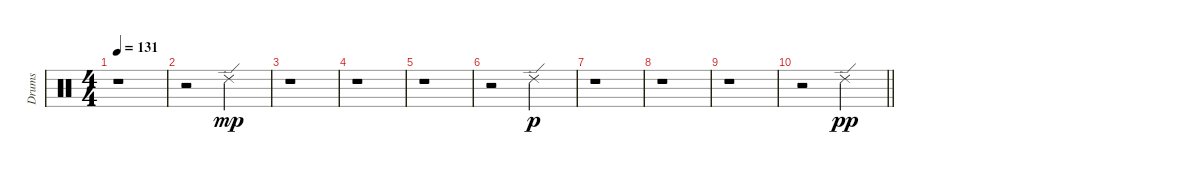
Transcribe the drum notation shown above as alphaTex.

\track ("Drums" "Drums") {instrument percussion}
\staff {score}
\articulation defaults
\ts (4 4)
\tempo 131
\clef neutral
\ks c
r.1{dy mf} |
r.2 "Ride (edge) 2".2{dy mp} |
r.1 |
r.1 |
r.1 |
r.2 "Ride (edge) 2".2{dy p} |
r.1 |
r.1 |
r.1 |
\barLineRight lightlight
r.2 "Ride (edge) 2".2{dy pp}
